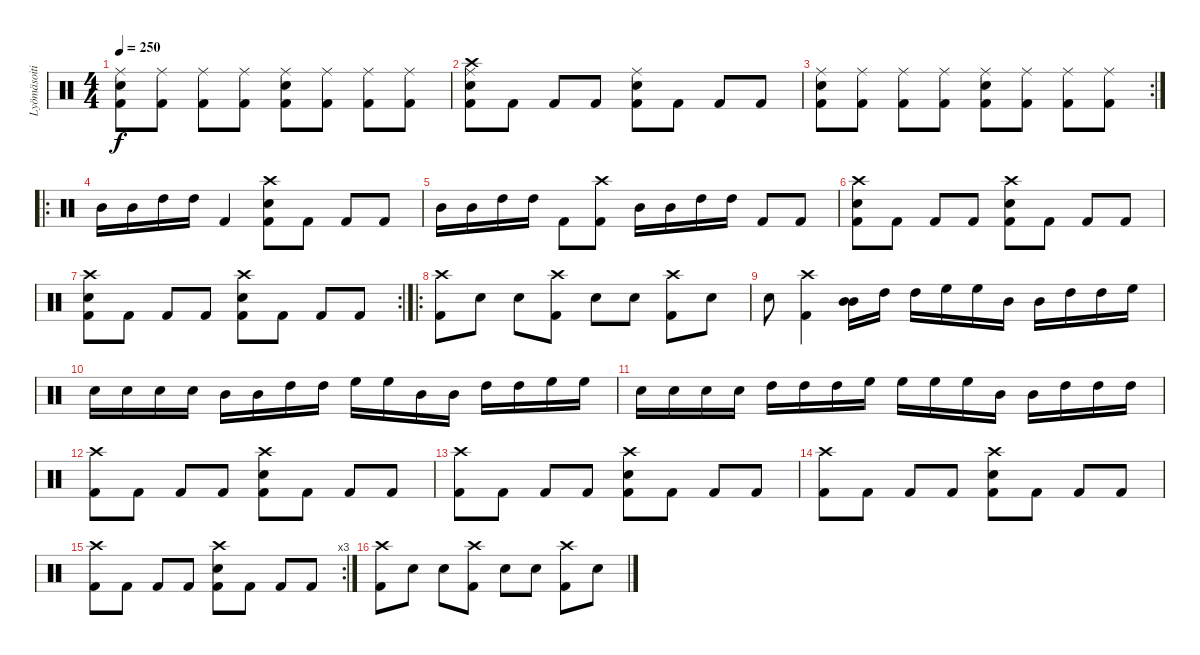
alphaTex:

\track ("Lyömäsoitin" "Lyömäsoiti") {instrument percussion}
\staff {score}
\articulation defaults
\ts (4 4)
\tempo 250
\clef neutral
\ks c
("Ride (middle)" "Electric Snare (hit)" "Kick (hit) 2").8{dy f} ("Ride (middle)" "Kick (hit) 2").8 ("Ride (middle)" "Kick (hit) 2").8 ("Ride (middle)" "Kick (hit) 2").8 ("Ride (middle)" "Electric Snare (hit)" "Kick (hit) 2").8 ("Ride (middle)" "Kick (hit) 2").8 ("Ride (middle)" "Kick (hit) 2").8 ("Ride (middle)" "Kick (hit) 2").8 |
("Crash high (hit)" "Ride (middle)" "Electric Snare (hit)" "Kick (hit) 2").8 "Kick (hit) 2".8 "Kick (hit) 2".8 "Kick (hit) 2".8 ("Ride (middle)" "Electric Snare (hit)" "Kick (hit) 2").8 "Kick (hit) 2".8 "Kick (hit) 2".8 "Kick (hit) 2".8 |
\rc 2
("Ride (middle)" "Electric Snare (hit)" "Kick (hit) 2").8 ("Ride (middle)" "Kick (hit) 2").8 ("Ride (middle)" "Kick (hit) 2").8 ("Ride (middle)" "Kick (hit) 2").8 ("Ride (middle)" "Electric Snare (hit)" "Kick (hit) 2").8 ("Ride (middle)" "Kick (hit) 2").8 ("Ride (middle)" "Kick (hit) 2").8 ("Ride (middle)" "Kick (hit) 2").8 |
\ro "Mid Tom (hit)".16 "Mid Tom (hit)".16 "High Tom (hit)".16 "High Tom (hit)".16 "Kick (hit) 2".4
("Crash high (hit)" "Electric Snare (hit)" "Kick (hit) 2").8 "Kick (hit) 2".8 "Kick (hit) 2".8 "Kick (hit) 2".8 |
"Mid Tom (hit)".16 "Mid Tom (hit)".16 "High Tom (hit)".16 "High Tom (hit)".16 "Kick (hit) 2".8 ("Crash high (hit)" "Kick (hit) 2").8 "Mid Tom (hit)".16 "Mid Tom (hit)".16 "High Tom (hit)".16 "High Tom (hit)".16 "Kick (hit) 2".8 "Kick (hit) 2".8 |
("Crash high (hit)" "Electric Snare (hit)" "Kick (hit) 2").8 "Kick (hit) 2".8 "Kick (hit) 2".8 "Kick (hit) 2".8 ("Crash high (hit)" "Electric Snare (hit)" "Kick (hit) 2").8 "Kick (hit) 2".8 "Kick (hit) 2".8 "Kick (hit) 2".8 |
\rc 2
("Crash high (hit)" "Electric Snare (hit)" "Kick (hit) 2").8 "Kick (hit) 2".8 "Kick (hit) 2".8 "Kick (hit) 2".8 ("Crash high (hit)" "Electric Snare (hit)" "Kick (hit) 2").8 "Kick (hit) 2".8 "Kick (hit) 2".8 "Kick (hit) 2".8 |
\ro
("Crash high (hit)" "Kick (hit) 2").8 "Electric Snare (hit)".8 "Electric Snare (hit)".8 ("Crash high (hit)" "Kick (hit) 2").8 "Electric Snare (hit)".8 "Electric Snare (hit)".8 ("Crash high (hit)" "Kick (hit) 2").8 "Electric Snare (hit)".8 |
"Electric Snare (hit)".8 ("Crash high (hit)" "Kick (hit) 2").4 ("Mid Tom (hit)" "Mid Tom (hit)").16 "High Tom (hit)".16 "High Tom (hit)".16 "High Floor Tom (hit)".16 "High Floor Tom (hit)".16 "Mid Tom (hit)".16 "Mid Tom (hit)".16 "High Tom (hit)".16 "High Tom (hit)".16 "High Floor Tom (hit)".16 |
"Electric Snare (hit)".16 "Electric Snare (hit)".16 "Electric Snare (hit)".16 "Electric Snare (hit)".16 "Mid Tom (hit)".16 "Mid Tom (hit)".16 "High Tom (hit)".16 "High Tom (hit)".16 "High Floor Tom (hit)".16 "High Floor Tom (hit)".16 "Mid Tom (hit)".16 "Mid Tom (hit)".16 "High Tom (hit)".16 "High Tom (hit)".16 "High Floor Tom (hit)".16 "High Floor Tom (hit)".16 |
"Electric Snare (hit)".16 "Electric Snare (hit)".16 "Electric Snare (hit)".16 "Electric Snare (hit)".16 "High Tom (hit)".16 "High Tom (hit)".16 "High Tom (hit)".16 "High Floor Tom (hit)".16 "High Floor Tom (hit)".16 "High Floor Tom (hit)".16 "High Floor Tom (hit)".16 "Mid Tom (hit)".16 "Mid Tom (hit)".16 "High Tom (hit)".16 "High Tom (hit)".16 "High Tom (hit)".16 |
("Crash high (hit)" "Kick (hit) 2").8 "Kick (hit) 2".8 "Kick (hit) 2".8 "Kick (hit) 2".8 ("Crash high (hit)" "Electric Snare (hit)" "Kick (hit) 2").8 "Kick (hit) 2".8 "Kick (hit) 2".8 "Kick (hit) 2".8 |
("Crash high (hit)" "Kick (hit) 2").8 "Kick (hit) 2".8 "Kick (hit) 2".8 "Kick (hit) 2".8 ("Crash high (hit)" "Electric Snare (hit)" "Kick (hit) 2").8 "Kick (hit) 2".8 "Kick (hit) 2".8 "Kick (hit) 2".8 |
("Crash high (hit)" "Kick (hit) 2").8 "Kick (hit) 2".8 "Kick (hit) 2".8 "Kick (hit) 2".8 ("Crash high (hit)" "Electric Snare (hit)" "Kick (hit) 2").8 "Kick (hit) 2".8 "Kick (hit) 2".8 "Kick (hit) 2".8 |
\rc 3
("Crash high (hit)" "Kick (hit) 2").8 "Kick (hit) 2".8 "Kick (hit) 2".8 "Kick (hit) 2".8 ("Crash high (hit)" "Electric Snare (hit)" "Kick (hit) 2").8 "Kick (hit) 2".8 "Kick (hit) 2".8 "Kick (hit) 2".8 |
("Crash high (hit)" "Kick (hit) 2").8 "Electric Snare (hit)".8 "Electric Snare (hit)".8 ("Crash high (hit)" "Kick (hit) 2").8 "Electric Snare (hit)".8 "Electric Snare (hit)".8 ("Crash high (hit)" "Kick (hit) 2").8 "Electric Snare (hit)".8
